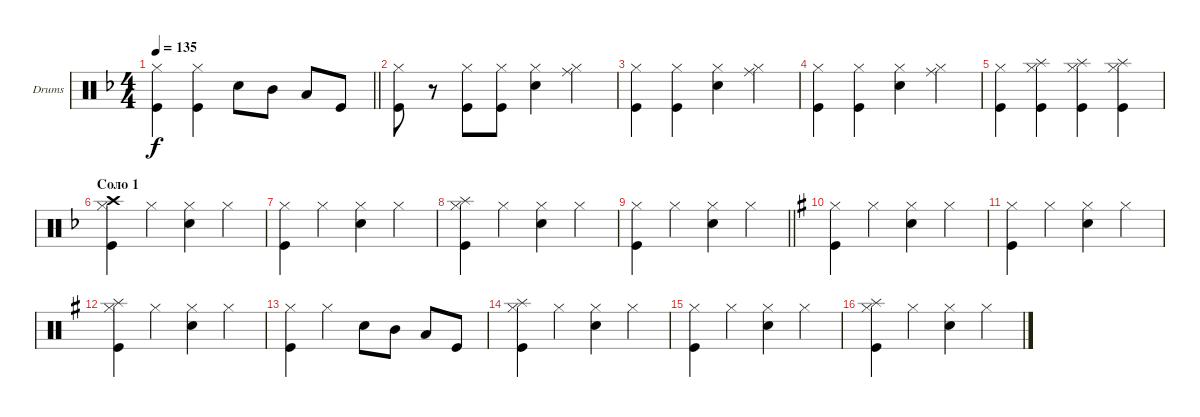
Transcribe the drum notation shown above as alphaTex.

\bracketExtendMode groupsimilarinstruments
\firstSystemTrackNameOrientation horizontal
\otherSystemsTrackNameOrientation horizontal
\track ("Drumkitover" "Drums") {instrument percussion}
\staff {score}
\articulation defaults
\ts (4 4)
\tempo 135
\clef neutral
\scale
0.333333
\barLineRight lightlight
\ks dminor
("Hi-Hat (closed)" "Kick (hit)").4{dy f} ("Hi-Hat (closed)" "Kick (hit)").4 "Snare (hit) 2".8 "Mid Tom (hit)".8 "Low Tom (hit)".8 "Kick (hit)".8 |
\scale
0.333333 ("Kick (hit)" "Hi-Hat (closed)").8 r.8 ("Hi-Hat (closed)" "Kick (hit)").8 ("Hi-Hat (closed)" "Kick (hit)").8 ("Snare (hit) 2" "Hi-Hat (closed)").4 ("Hi-Hat (closed)" "Ride (middle)").4 |
\scale
0.333333 ("Hi-Hat (closed)" "Kick (hit)").4 ("Hi-Hat (closed)" "Kick (hit)").4 ("Snare (hit) 2" "Hi-Hat (closed)").4 ("Hi-Hat (closed)" "Ride (middle)").4 |
\scale
0.333333 ("Hi-Hat (closed)" "Kick (hit)").4 ("Hi-Hat (closed)" "Kick (hit)").4 ("Snare (hit) 2" "Hi-Hat (closed)").4 ("Hi-Hat (closed)" "Ride (middle)").4 |
\scale
0.333333 ("Hi-Hat (closed)" "Kick (hit)").4 ("Hi-Hat (closed)" "Kick (hit)" "Splash (hit)").4 ("Hi-Hat (closed)" "Kick (hit)" "Splash (hit)").4 ("Hi-Hat (closed)" "Kick (hit)" "Splash (hit)").4 |
\section ("" "Соло 1")
\scale
0.333333 ("Hi-Hat (closed)" "Kick (hit)" "Crash high (hit)").4 "Hi-Hat (closed)".4 ("Hi-Hat (closed)" "Snare (hit) 2").4 "Hi-Hat (closed)".4 |
\scale
0.333333 ("Hi-Hat (closed)" "Kick (hit)").4 "Hi-Hat (closed)".4 ("Hi-Hat (closed)" "Snare (hit) 2").4 "Hi-Hat (closed)".4 |
\scale
0.333333 ("Hi-Hat (closed)" "Kick (hit)" "Splash (hit)").4 "Hi-Hat (closed)".4 ("Hi-Hat (closed)" "Snare (hit) 2").4 "Hi-Hat (closed)".4 |
\scale
0.264151
\barLineRight lightlight
("Hi-Hat (closed)" "Kick (hit)").4 "Hi-Hat (closed)".4 ("Hi-Hat (closed)" "Snare (hit) 2").4 "Hi-Hat (closed)".4 |
\scale
0.471698
\ks eminor
("Hi-Hat (closed)" "Kick (hit)").4 "Hi-Hat (closed)".4 ("Hi-Hat (closed)" "Snare (hit) 2").4 "Hi-Hat (closed)".4 |
\scale
0.264151 ("Hi-Hat (closed)" "Kick (hit)").4 "Hi-Hat (closed)".4 ("Hi-Hat (closed)" "Snare (hit) 2").4 "Hi-Hat (closed)".4 |
\scale
0.333333 ("Hi-Hat (closed)" "Kick (hit)" "Splash (hit)").4 "Hi-Hat (closed)".4 ("Hi-Hat (closed)" "Snare (hit) 2").4 "Hi-Hat (closed)".4 |
\scale
0.333333 ("Hi-Hat (closed)" "Kick (hit)").4 "Hi-Hat (closed)".4 "Snare (hit) 2".8 "Mid Tom (hit)".8 "Low Tom (hit)".8 "Kick (hit)".8 |
\scale
0.333333 ("Hi-Hat (closed)" "Kick (hit)" "Splash (hit)").4 "Hi-Hat (closed)".4 ("Hi-Hat (closed)" "Snare (hit) 2").4 "Hi-Hat (closed)".4 |
\scale
0.333333 ("Hi-Hat (closed)" "Kick (hit)").4 "Hi-Hat (closed)".4 ("Hi-Hat (closed)" "Snare (hit) 2").4 "Hi-Hat (closed)".4 |
\scale
0.333333 ("Hi-Hat (closed)" "Kick (hit)" "Splash (hit)").4 "Hi-Hat (closed)".4 ("Hi-Hat (closed)" "Snare (hit) 2").4 "Hi-Hat (closed)".4
